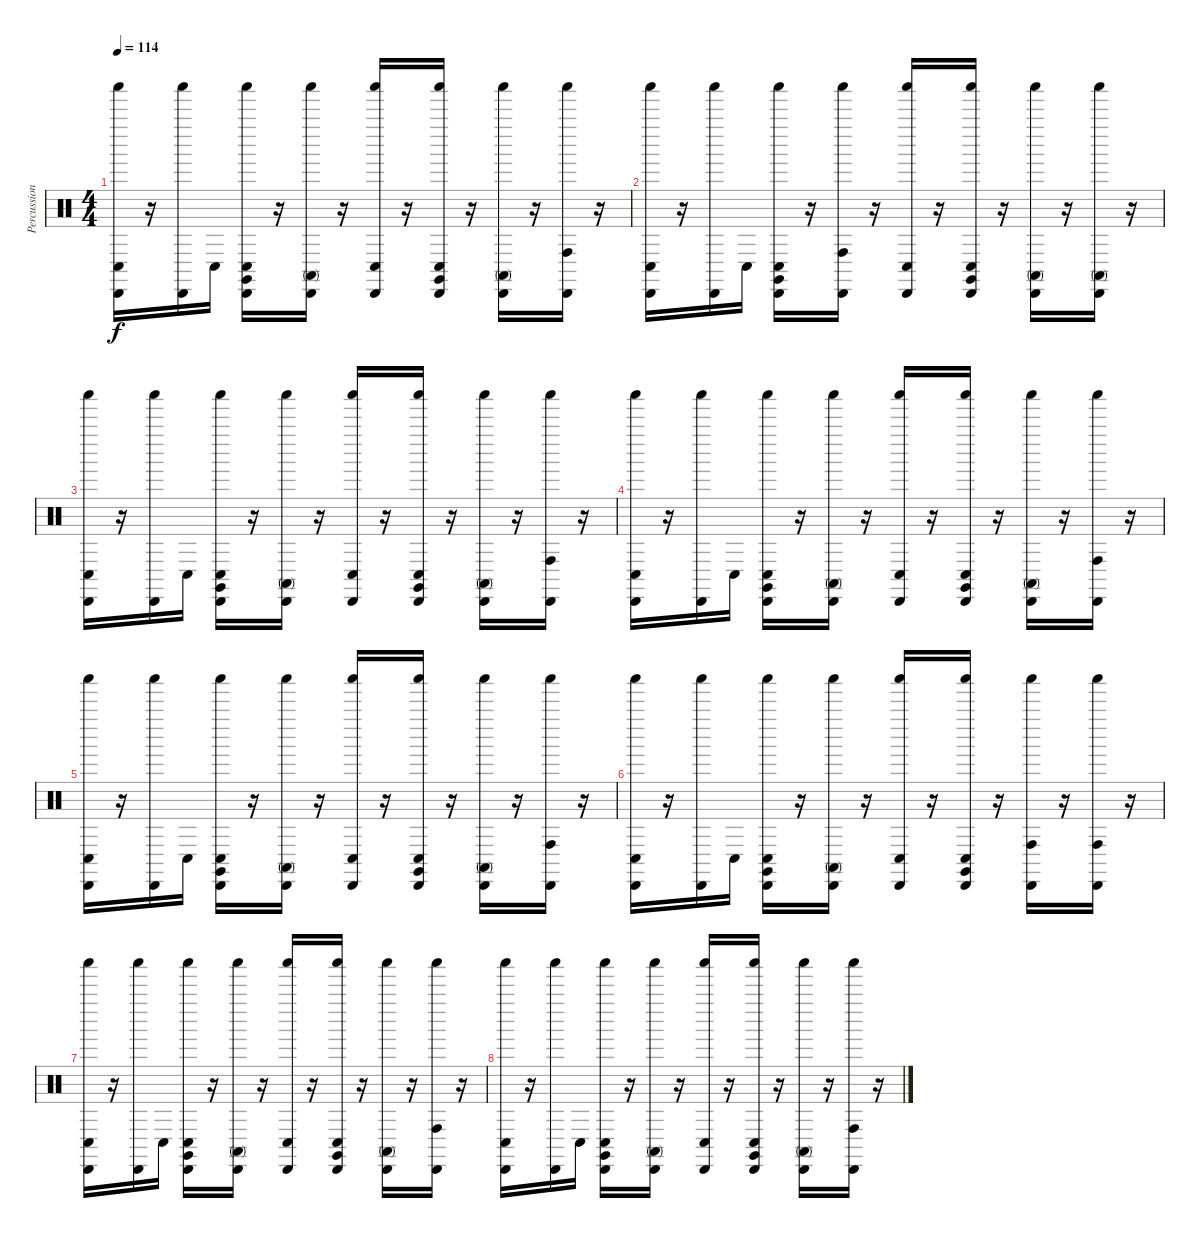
\track ("Percussion (Std Set)" "Percussion") {instrument percussion}
\staff {score}
\articulation defaults
\ts (4 4)
\tempo 114
\clef neutral
\ks c
("Conga low (hit)" "Shaker (hit)" "Cabasa (hit)").16{dy f} r.16 ("Cabasa (hit)" "Shaker (hit)").16 "Conga low (hit)".16 ("Conga low (hit)" "Cabasa (hit)" "Claves (hit)" "Shaker (hit)").16 r.16 ("Conga high (mute)" "Shaker (hit)" "Cabasa (hit)").16 r.16 ("Shaker (hit)" "Conga low (hit)" "Cabasa (hit)").16 r.16 ("Cabasa (hit)" "Claves (hit)" "Conga low (hit)" "Shaker (hit)").16 r.16 ("Conga high (mute)" "Shaker (hit)" "Cabasa (hit)").16 r.16 ("Shaker (hit)" "Cabasa (hit)" "Conga high (hit)").16 r.16 |
("Conga low (hit)" "Cabasa (hit)" "Shaker (hit)").16 r.16 ("Cabasa (hit)" "Shaker (hit)").16 "Conga low (hit)".16 ("Claves (hit)" "Shaker (hit)" "Cabasa (hit)" "Conga low (hit)").16 r.16 ("Conga high (hit)" "Cabasa (hit)" "Shaker (hit)").16 r.16 ("Cabasa (hit)" "Conga low (hit)" "Shaker (hit)").16 r.16 ("Shaker (hit)" "Conga low (hit)" "Claves (hit)" "Cabasa (hit)").16 r.16 ("Shaker (hit)" "Cabasa (hit)" "Conga high (mute)").16 r.16 ("Conga high (mute)" "Cabasa (hit)" "Shaker (hit)").16 r.16 |
("Conga low (hit)" "Shaker (hit)" "Cabasa (hit)").16 r.16 ("Shaker (hit)" "Cabasa (hit)").16 "Conga low (hit)".16 ("Cabasa (hit)" "Claves (hit)" "Conga low (hit)" "Shaker (hit)").16 r.16 ("Shaker (hit)" "Conga high (mute)" "Cabasa (hit)").16 r.16 ("Conga low (hit)" "Shaker (hit)" "Cabasa (hit)").16 r.16 ("Claves (hit)" "Cabasa (hit)" "Conga low (hit)" "Shaker (hit)").16 r.16 ("Conga high (mute)" "Cabasa (hit)" "Shaker (hit)").16 r.16 ("Cabasa (hit)" "Conga high (hit)" "Shaker (hit)").16 r.16 |
("Shaker (hit)" "Conga low (hit)" "Cabasa (hit)").16 r.16 ("Cabasa (hit)" "Shaker (hit)").16 "Conga low (hit)".16 ("Cabasa (hit)" "Conga low (hit)" "Shaker (hit)" "Claves (hit)").16 r.16 ("Shaker (hit)" "Conga high (mute)" "Cabasa (hit)").16 r.16 ("Shaker (hit)" "Conga low (hit)" "Cabasa (hit)").16 r.16 ("Conga low (hit)" "Cabasa (hit)" "Claves (hit)" "Shaker (hit)").16 r.16 ("Conga high (mute)" "Cabasa (hit)" "Shaker (hit)").16 r.16 ("Cabasa (hit)" "Shaker (hit)" "Conga high (hit)").16 r.16 |
("Shaker (hit)" "Cabasa (hit)" "Conga low (hit)").16 r.16 ("Shaker (hit)" "Cabasa (hit)").16 "Conga low (hit)".16 ("Cabasa (hit)" "Conga low (hit)" "Shaker (hit)" "Claves (hit)").16 r.16 ("Shaker (hit)" "Conga high (mute)" "Cabasa (hit)").16 r.16 ("Cabasa (hit)" "Conga low (hit)" "Shaker (hit)").16 r.16 ("Conga low (hit)" "Claves (hit)" "Shaker (hit)" "Cabasa (hit)").16 r.16 ("Shaker (hit)" "Cabasa (hit)" "Conga high (mute)").16 r.16 ("Shaker (hit)" "Cabasa (hit)" "Conga high (hit)").16 r.16 |
("Conga low (hit)" "Cabasa (hit)" "Shaker (hit)").16 r.16 ("Shaker (hit)" "Cabasa (hit)").16 "Conga low (hit)".16 ("Shaker (hit)" "Conga low (hit)" "Cabasa (hit)" "Claves (hit)").16 r.16 ("Cabasa (hit)" "Conga high (mute)" "Shaker (hit)").16 r.16 ("Shaker (hit)" "Cabasa (hit)" "Conga low (hit)").16 r.16 ("Claves (hit)" "Cabasa (hit)" "Conga low (hit)" "Shaker (hit)").16 r.16 ("Cabasa (hit)" "Conga high (hit)" "Shaker (hit)").16 r.16 ("Cabasa (hit)" "Shaker (hit)" "Conga high (hit)").16 r.16 |
("Shaker (hit)" "Conga low (hit)" "Cabasa (hit)").16 r.16 ("Cabasa (hit)" "Shaker (hit)").16 "Conga low (hit)".16 ("Cabasa (hit)" "Conga low (hit)" "Shaker (hit)" "Claves (hit)").16 r.16 ("Cabasa (hit)" "Shaker (hit)" "Conga high (mute)").16 r.16 ("Cabasa (hit)" "Shaker (hit)" "Conga low (hit)").16 r.16 ("Conga low (hit)" "Claves (hit)" "Shaker (hit)" "Cabasa (hit)").16 r.16 ("Cabasa (hit)" "Conga high (mute)" "Shaker (hit)").16 r.16 ("Shaker (hit)" "Conga high (hit)" "Cabasa (hit)").16 r.16 |
("Conga low (hit)" "Cabasa (hit)" "Shaker (hit)").16 r.16 ("Shaker (hit)" "Cabasa (hit)").16 "Conga low (hit)".16 ("Shaker (hit)" "Cabasa (hit)" "Claves (hit)" "Conga low (hit)").16 r.16 ("Conga high (mute)" "Cabasa (hit)" "Shaker (hit)").16 r.16 ("Conga low (hit)" "Shaker (hit)" "Cabasa (hit)").16 r.16 ("Conga low (hit)" "Cabasa (hit)" "Shaker (hit)" "Claves (hit)").16 r.16 ("Shaker (hit)" "Cabasa (hit)" "Conga high (mute)").16 r.16 ("Shaker (hit)" "Cabasa (hit)" "Conga high (hit)").16 r.16
